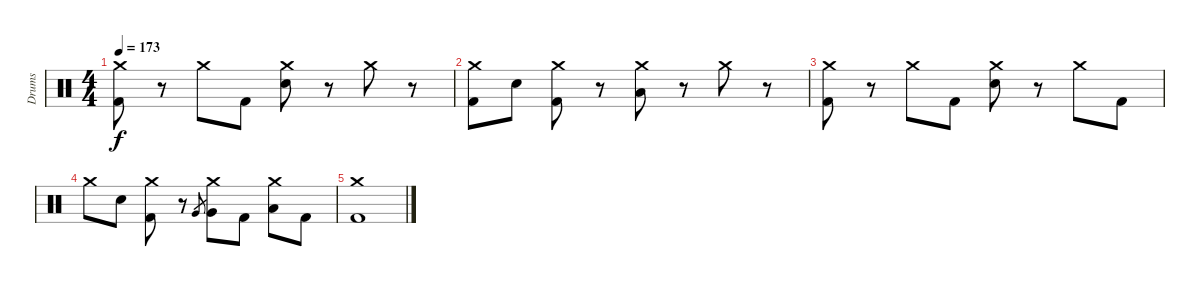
\track ("Drums" "Drums") {instrument percussion}
\staff {score}
\articulation defaults
\ts (4 4)
\tempo 173
\clef neutral
\ks c
("Kick (hit) 2" "Crash medium (hit)").8{dy f} r.8 "Crash medium (hit)".8 "Kick (hit) 2".8 ("Electric Snare (hit)" "Crash medium (hit)").8 r.8 "Crash medium (hit)".8 r.8 |
("Kick (hit) 2" "Crash medium (hit)").8 "Electric Snare (hit)".8 ("Kick (hit) 2" "Crash medium (hit)").8 r.8 ("Low Floor Tom (hit)" "Crash medium (hit)").8 r.8 "Crash medium (hit)".8 r.8 |
("Kick (hit) 2" "Crash medium (hit)").8 r.8 "Crash medium (hit)".8 "Kick (hit) 2".8 ("Electric Snare (hit)" "Crash medium (hit)").8 r.8 "Crash medium (hit)".8 "Kick (hit) 2".8 |
"Crash medium (hit)".8 "Electric Snare (hit)".8 ("Kick (hit) 2" "Crash medium (hit)").8 r.8 "Very Low Tom (hit)".8{gr} ("Very Low Tom (hit)" "Crash medium (hit)").8 "Kick (hit) 2".8 ("Low Floor Tom (hit)" "Crash medium (hit)").8 "Kick (hit) 2".8 |
("Kick (hit) 2" "Crash medium (hit)").1
